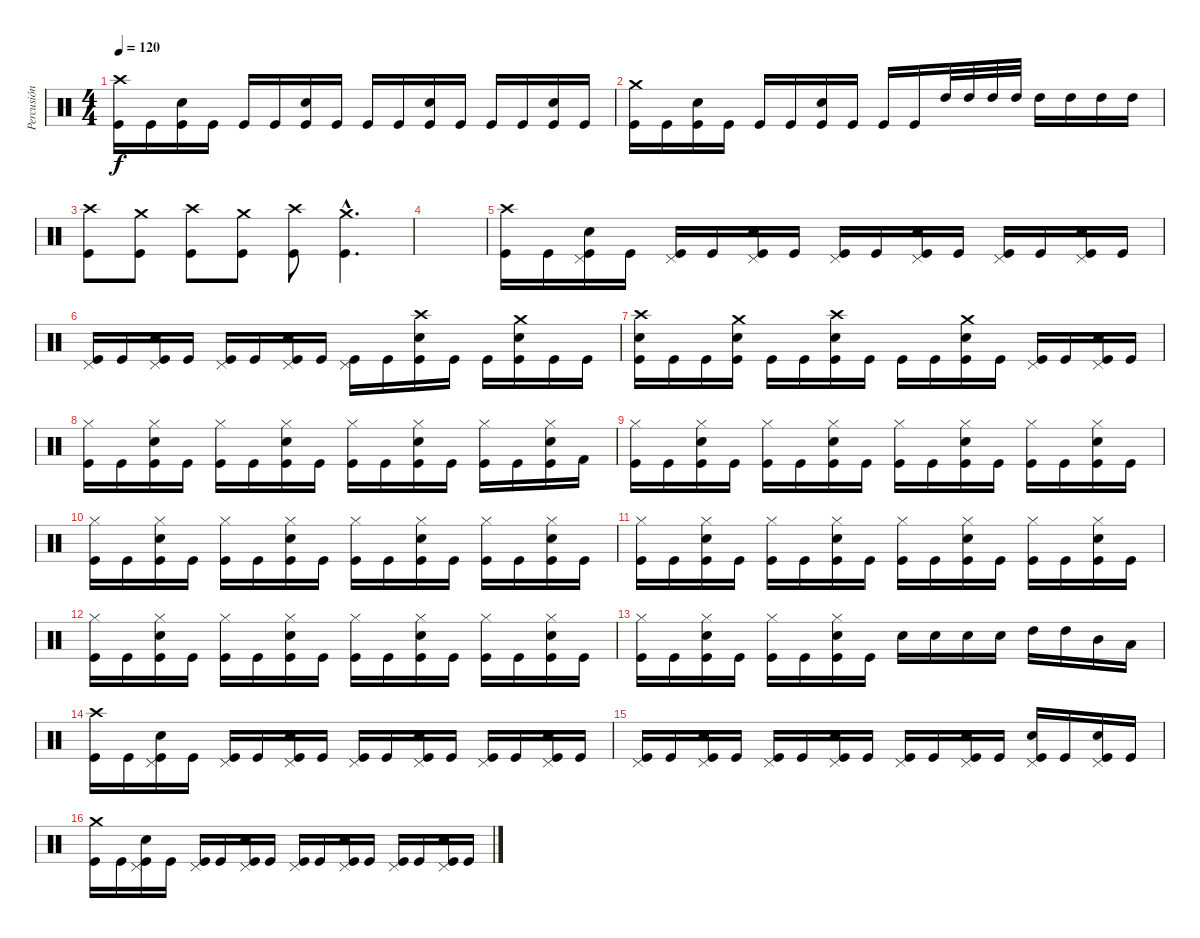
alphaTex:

\track ("Percusión" "Percusión") {instrument percussion}
\staff {score}
\articulation defaults
\ts (4 4)
\tempo 120
\clef neutral
\ks c
("Crash high (hit)" "Kick (hit)").16{dy f} "Kick (hit)".16 ("Snare (hit) 2" "Kick (hit)").16 "Kick (hit)".16 "Kick (hit)".16 "Kick (hit)".16 ("Snare (hit) 2" "Kick (hit)").16 "Kick (hit)".16 "Kick (hit)".16 "Kick (hit)".16 ("Snare (hit) 2" "Kick (hit)").16 "Kick (hit)".16 "Kick (hit)".16 "Kick (hit)".16 ("Snare (hit) 2" "Kick (hit)").16 "Kick (hit)".16 |
("Crash medium (hit)" "Kick (hit)").16 "Kick (hit)".16 ("Snare (hit) 2" "Kick (hit)").16 "Kick (hit)".16 "Kick (hit)".16 "Kick (hit)".16 ("Snare (hit) 2" "Kick (hit)").16 "Kick (hit)".16 "Kick (hit)".16 "Kick (hit)".16 "High Tom (hit)".32 "High Tom (hit)".32 "High Tom (hit)".32 "High Tom (hit)".32 "High Tom (hit)".16 "High Tom (hit)".16 "High Tom (hit)".16 "High Tom (hit)".16 |
("Crash high (hit)" "Kick (hit)").8 ("Crash medium (hit)" "Kick (hit)").8 ("Crash high (hit)" "Kick (hit)").8 ("Crash medium (hit)" "Kick (hit)").8 ("Crash high (hit)" "Kick (hit)").8 ("Crash medium (hit)"{hac} "Kick (hit)"{hac}).4{d} |
|
("Crash high (hit)" "Kick (hit)").16 "Kick (hit)".16 ("Pedal Hi-Hat (hit)" "Snare (hit) 2" "Kick (hit)").16 "Kick (hit)".16 ("Pedal Hi-Hat (hit)" "Kick (hit)").16 "Kick (hit)".16 ("Pedal Hi-Hat (hit)" "Snare (hit) 2" "Kick (hit)").16 "Kick (hit)".16 ("Pedal Hi-Hat (hit)" "Kick (hit)").16 "Kick (hit)".16 ("Pedal Hi-Hat (hit)" "Snare (hit) 2" "Kick (hit)").16 "Kick (hit)".16 ("Pedal Hi-Hat (hit)" "Kick (hit)").16 "Kick (hit)".16 ("Pedal Hi-Hat (hit)" "Snare (hit) 2" "Kick (hit)").16 "Kick (hit)".16 |
("Pedal Hi-Hat (hit)" "Kick (hit)").16 "Kick (hit)".16 ("Pedal Hi-Hat (hit)" "Snare (hit) 2" "Kick (hit)").16 "Kick (hit)".16 ("Pedal Hi-Hat (hit)" "Kick (hit)").16 "Kick (hit)".16 ("Pedal Hi-Hat (hit)" "Snare (hit) 2" "Kick (hit)").16 "Kick (hit)".16 ("Pedal Hi-Hat (hit)" "Kick (hit)").16 "Kick (hit)".16 ("Crash high (hit)" "Snare (hit) 2" "Kick (hit)").16 "Kick (hit)".16 "Kick (hit)".16 ("Crash medium (hit)" "Snare (hit) 2" "Kick (hit)").16 "Kick (hit)".16 "Kick (hit)".16 |
("Crash high (hit)" "Snare (hit) 2" "Kick (hit)").16 "Kick (hit)".16 "Kick (hit)".16 ("Crash medium (hit)" "Snare (hit) 2" "Kick (hit)").16 "Kick (hit)".16 "Kick (hit)".16 ("Crash high (hit)" "Snare (hit) 2" "Kick (hit)").16 "Kick (hit)".16 "Kick (hit)".16 "Kick (hit)".16 ("Crash medium (hit)" "Snare (hit) 2" "Kick (hit)").16 "Kick (hit)".16 ("Pedal Hi-Hat (hit)" "Kick (hit)").16 "Kick (hit)".16 ("Pedal Hi-Hat (hit)" "Snare (hit) 2" "Kick (hit)").16 "Kick (hit)".16 |
("Hi-Hat (closed)" "Kick (hit)").16 "Kick (hit)".16 ("Hi-Hat (closed)" "Snare (hit) 2" "Kick (hit)").16 "Kick (hit)".16 ("Hi-Hat (closed)" "Kick (hit)").16 "Kick (hit)".16 ("Hi-Hat (closed)" "Snare (hit) 2" "Kick (hit)").16 "Kick (hit)".16 ("Hi-Hat (closed)" "Kick (hit)").16 "Kick (hit)".16 ("Hi-Hat (closed)" "Snare (hit) 2" "Kick (hit)").16 "Kick (hit)".16 ("Hi-Hat (closed)" "Kick (hit)").16 "Kick (hit)".16 ("Hi-Hat (closed)" "Snare (hit) 2" "Kick (hit)").16 "Kick (hit) 2".16 |
("Hi-Hat (closed)" "Kick (hit)").16 "Kick (hit)".16 ("Hi-Hat (closed)" "Snare (hit) 2" "Kick (hit)").16 "Kick (hit)".16 ("Hi-Hat (closed)" "Kick (hit)").16 "Kick (hit)".16 ("Hi-Hat (closed)" "Snare (hit) 2" "Kick (hit)").16 "Kick (hit)".16 ("Hi-Hat (closed)" "Kick (hit)").16 "Kick (hit)".16 ("Hi-Hat (closed)" "Snare (hit) 2" "Kick (hit)").16 "Kick (hit)".16 ("Hi-Hat (closed)" "Kick (hit)").16 "Kick (hit)".16 ("Hi-Hat (closed)" "Snare (hit) 2" "Kick (hit)").16 "Kick (hit)".16 |
("Hi-Hat (closed)" "Kick (hit)").16 "Kick (hit)".16 ("Hi-Hat (closed)" "Snare (hit) 2" "Kick (hit)").16 "Kick (hit)".16 ("Hi-Hat (closed)" "Kick (hit)").16 "Kick (hit)".16 ("Hi-Hat (closed)" "Snare (hit) 2" "Kick (hit)").16 "Kick (hit)".16 ("Hi-Hat (closed)" "Kick (hit)").16 "Kick (hit)".16 ("Hi-Hat (closed)" "Snare (hit) 2" "Kick (hit)").16 "Kick (hit)".16 ("Hi-Hat (closed)" "Kick (hit)").16 "Kick (hit)".16 ("Hi-Hat (closed)" "Snare (hit) 2" "Kick (hit)").16 "Kick (hit)".16 |
("Hi-Hat (closed)" "Kick (hit)").16 "Kick (hit)".16 ("Hi-Hat (closed)" "Snare (hit) 2" "Kick (hit)").16 "Kick (hit)".16 ("Hi-Hat (closed)" "Kick (hit)").16 "Kick (hit)".16 ("Hi-Hat (closed)" "Snare (hit) 2" "Kick (hit)").16 "Kick (hit)".16 ("Hi-Hat (closed)" "Kick (hit)").16 "Kick (hit)".16 ("Hi-Hat (closed)" "Snare (hit) 2" "Kick (hit)").16 "Kick (hit)".16 ("Hi-Hat (closed)" "Kick (hit)").16 "Kick (hit)".16 ("Hi-Hat (closed)" "Snare (hit) 2" "Kick (hit)").16 "Kick (hit)".16 |
("Hi-Hat (closed)" "Kick (hit)").16 "Kick (hit)".16 ("Hi-Hat (closed)" "Snare (hit) 2" "Kick (hit)").16 "Kick (hit)".16 ("Hi-Hat (closed)" "Kick (hit)").16 "Kick (hit)".16 ("Hi-Hat (closed)" "Snare (hit) 2" "Kick (hit)").16 "Kick (hit)".16 ("Hi-Hat (closed)" "Kick (hit)").16 "Kick (hit)".16 ("Hi-Hat (closed)" "Snare (hit) 2" "Kick (hit)").16 "Kick (hit)".16 ("Hi-Hat (closed)" "Kick (hit)").16 "Kick (hit)".16 ("Hi-Hat (closed)" "Snare (hit) 2" "Kick (hit)").16 "Kick (hit)".16 |
("Hi-Hat (closed)" "Kick (hit)").16 "Kick (hit)".16 ("Hi-Hat (closed)" "Snare (hit) 2" "Kick (hit)").16 "Kick (hit)".16 ("Hi-Hat (closed)" "Kick (hit)").16 "Kick (hit)".16 ("Hi-Hat (closed)" "Snare (hit) 2" "Kick (hit)").16 "Kick (hit)".16 "Snare (hit) 2".16 "Snare (hit) 2".16 "Snare (hit) 2".16 "Snare (hit) 2".16 "High Tom (hit)".16 "High Tom (hit)".16 "Mid Tom (hit)".16 "Low Tom (hit)".16 |
("Crash high (hit)" "Kick (hit)").16 "Kick (hit)".16 ("Pedal Hi-Hat (hit)" "Snare (hit) 2" "Kick (hit)").16 "Kick (hit)".16 ("Pedal Hi-Hat (hit)" "Kick (hit)").16 "Kick (hit)".16 ("Pedal Hi-Hat (hit)" "Snare (hit) 2" "Kick (hit)").16 "Kick (hit)".16 ("Pedal Hi-Hat (hit)" "Kick (hit)").16 "Kick (hit)".16 ("Pedal Hi-Hat (hit)" "Snare (hit) 2" "Kick (hit)").16 "Kick (hit)".16 ("Pedal Hi-Hat (hit)" "Kick (hit)").16 "Kick (hit)".16 ("Pedal Hi-Hat (hit)" "Snare (hit) 2" "Kick (hit)").16 "Kick (hit)".16 |
("Pedal Hi-Hat (hit)" "Kick (hit)").16 "Kick (hit)".16 ("Pedal Hi-Hat (hit)" "Snare (hit) 2" "Kick (hit)").16 "Kick (hit)".16 ("Pedal Hi-Hat (hit)" "Kick (hit)").16 "Kick (hit)".16 ("Pedal Hi-Hat (hit)" "Snare (hit) 2" "Kick (hit)").16 "Kick (hit)".16 ("Pedal Hi-Hat (hit)" "Kick (hit)").16 "Kick (hit)".16 ("Pedal Hi-Hat (hit)" "Snare (hit) 2" "Kick (hit)").16 "Kick (hit)".16 ("Pedal Hi-Hat (hit)" "Snare (hit) 2" "Kick (hit)").16 "Kick (hit)".16 ("Pedal Hi-Hat (hit)" "Snare (hit) 2" "Kick (hit)").16 "Kick (hit)".16 |
("Crash medium (hit)" "Kick (hit)").16 "Kick (hit)".16 ("Pedal Hi-Hat (hit)" "Snare (hit) 2" "Kick (hit)").16 "Kick (hit)".16 ("Pedal Hi-Hat (hit)" "Kick (hit)").16 "Kick (hit)".16 ("Pedal Hi-Hat (hit)" "Snare (hit) 2" "Kick (hit)").16 "Kick (hit)".16 ("Pedal Hi-Hat (hit)" "Kick (hit)").16 "Kick (hit)".16 ("Pedal Hi-Hat (hit)" "Snare (hit) 2" "Kick (hit)").16 "Kick (hit)".16 ("Pedal Hi-Hat (hit)" "Kick (hit)").16 "Kick (hit)".16 ("Pedal Hi-Hat (hit)" "Snare (hit) 2" "Kick (hit)").16 "Kick (hit)".16
